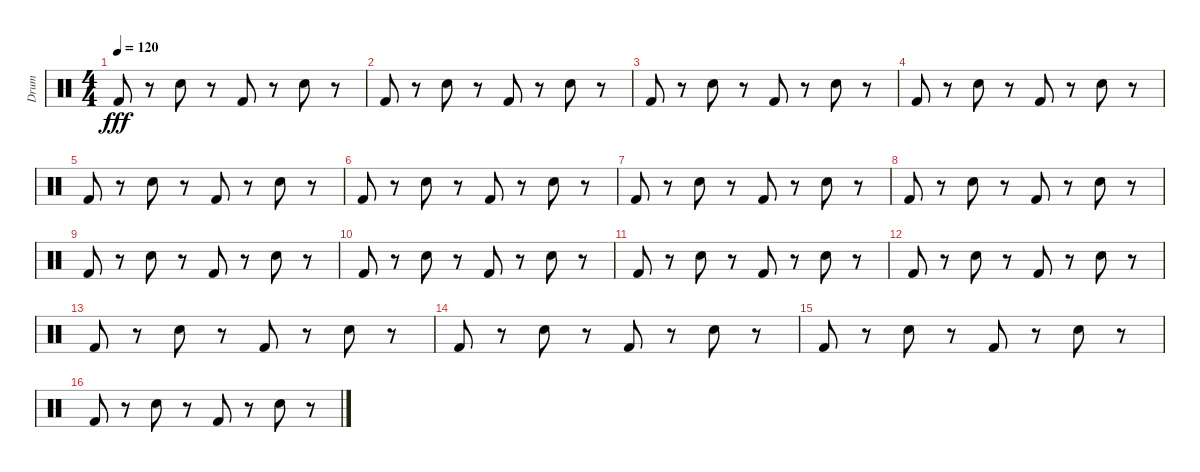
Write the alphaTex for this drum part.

\track ("Drum" "Drum") {instrument percussion}
\staff {score}
\articulation defaults
\ts (4 4)
\tempo 120
\clef neutral
\ks c "Kick (hit) 2".8{dy fff}
r.8 "Snare (hit) 2".8 r.8 "Kick (hit) 2".8 r.8 "Snare (hit) 2".8 r.8 |
"Kick (hit) 2".8 r.8 "Snare (hit) 2".8 r.8 "Kick (hit) 2".8 r.8 "Snare (hit) 2".8 r.8 |
"Kick (hit) 2".8 r.8 "Snare (hit) 2".8 r.8 "Kick (hit) 2".8 r.8 "Snare (hit) 2".8 r.8 |
"Kick (hit) 2".8 r.8 "Snare (hit) 2".8 r.8 "Kick (hit) 2".8 r.8 "Snare (hit) 2".8 r.8 |
"Kick (hit) 2".8 r.8 "Snare (hit) 2".8 r.8 "Kick (hit) 2".8 r.8 "Snare (hit) 2".8 r.8 |
"Kick (hit) 2".8 r.8 "Snare (hit) 2".8 r.8 "Kick (hit) 2".8 r.8 "Snare (hit) 2".8 r.8 |
"Kick (hit) 2".8 r.8 "Snare (hit) 2".8 r.8 "Kick (hit) 2".8 r.8 "Snare (hit) 2".8 r.8 |
"Kick (hit) 2".8 r.8 "Snare (hit) 2".8 r.8 "Kick (hit) 2".8 r.8 "Snare (hit) 2".8 r.8 |
"Kick (hit) 2".8 r.8 "Snare (hit) 2".8 r.8 "Kick (hit) 2".8 r.8 "Snare (hit) 2".8 r.8 |
"Kick (hit) 2".8 r.8 "Snare (hit) 2".8 r.8 "Kick (hit) 2".8 r.8 "Snare (hit) 2".8 r.8 |
"Kick (hit) 2".8 r.8 "Snare (hit) 2".8 r.8 "Kick (hit) 2".8 r.8 "Snare (hit) 2".8 r.8 |
"Kick (hit) 2".8 r.8 "Snare (hit) 2".8 r.8 "Kick (hit) 2".8 r.8 "Snare (hit) 2".8 r.8 |
"Kick (hit) 2".8 r.8 "Snare (hit) 2".8 r.8 "Kick (hit) 2".8 r.8 "Snare (hit) 2".8 r.8 |
"Kick (hit) 2".8 r.8 "Snare (hit) 2".8 r.8 "Kick (hit) 2".8 r.8 "Snare (hit) 2".8 r.8 |
"Kick (hit) 2".8 r.8 "Snare (hit) 2".8 r.8 "Kick (hit) 2".8 r.8 "Snare (hit) 2".8 r.8 |
"Kick (hit) 2".8 r.8 "Snare (hit) 2".8 r.8 "Kick (hit) 2".8 r.8 "Snare (hit) 2".8 r.8
